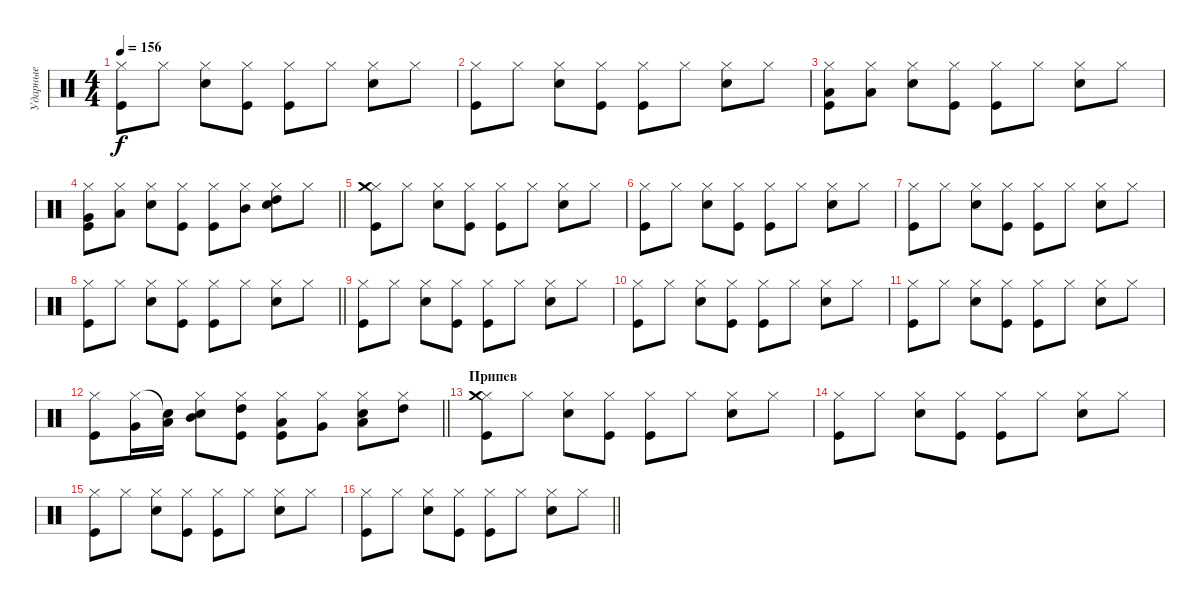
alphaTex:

\track ("Ударные" "Ударные") {instrument percussion}
\staff {score}
\articulation defaults
\ts (4 4)
\tempo 156
\clef neutral
\ks c
("Hi-Hat (closed)" "Kick (hit)").8{dy f} "Hi-Hat (closed)".8 ("Hi-Hat (closed)" "Snare (hit) 2").8 ("Hi-Hat (closed)" "Kick (hit)").8 ("Hi-Hat (closed)" "Kick (hit)").8 "Hi-Hat (closed)".8 ("Hi-Hat (closed)" "Snare (hit) 2").8 "Hi-Hat (closed)".8 |
("Hi-Hat (closed)" "Kick (hit)").8 "Hi-Hat (closed)".8 ("Hi-Hat (closed)" "Snare (hit) 2").8 ("Hi-Hat (closed)" "Kick (hit)").8 ("Hi-Hat (closed)" "Kick (hit)").8 "Hi-Hat (closed)".8 ("Hi-Hat (closed)" "Snare (hit) 2").8 "Hi-Hat (closed)".8 |
("Hi-Hat (closed)" "Kick (hit)" "Low Tom (hit)").8 ("Hi-Hat (closed)" "Low Tom (hit)").8 ("Hi-Hat (closed)" "Snare (hit) 2").8 ("Hi-Hat (closed)" "Kick (hit)").8 ("Hi-Hat (closed)" "Kick (hit)").8 "Hi-Hat (closed)".8 ("Hi-Hat (closed)" "Snare (hit) 2").8 "Hi-Hat (closed)".8 |
\barLineRight lightlight
("Hi-Hat (closed)" "Kick (hit)" "Very Low Tom (hit)").8 ("Hi-Hat (closed)" "Low Tom (hit)").8 ("Hi-Hat (closed)" "Snare (hit) 2").8 ("Hi-Hat (closed)" "Kick (hit)").8 ("Hi-Hat (closed)" "Kick (hit)").8 ("Hi-Hat (closed)" "Mid Tom (hit)").8 ("Hi-Hat (closed)" "Snare (hit) 2" "High Tom (hit)").8 "Hi-Hat (closed)".8 |
("Hi-Hat (closed)" "Kick (hit)" "Crash medium (hit)").8 "Hi-Hat (closed)".8 ("Hi-Hat (closed)" "Snare (hit) 2").8 ("Hi-Hat (closed)" "Kick (hit)").8 ("Hi-Hat (closed)" "Kick (hit)").8 "Hi-Hat (closed)".8 ("Hi-Hat (closed)" "Snare (hit) 2").8 "Hi-Hat (closed)".8 |
("Hi-Hat (closed)" "Kick (hit)").8 "Hi-Hat (closed)".8 ("Hi-Hat (closed)" "Snare (hit) 2").8 ("Hi-Hat (closed)" "Kick (hit)").8 ("Hi-Hat (closed)" "Kick (hit)").8 "Hi-Hat (closed)".8 ("Hi-Hat (closed)" "Snare (hit) 2").8 "Hi-Hat (closed)".8 |
("Hi-Hat (closed)" "Kick (hit)").8 "Hi-Hat (closed)".8 ("Hi-Hat (closed)" "Snare (hit) 2").8 ("Hi-Hat (closed)" "Kick (hit)").8 ("Hi-Hat (closed)" "Kick (hit)").8 "Hi-Hat (closed)".8 ("Hi-Hat (closed)" "Snare (hit) 2").8 "Hi-Hat (closed)".8 |
\barLineRight lightlight
("Hi-Hat (closed)" "Kick (hit)").8 "Hi-Hat (closed)".8 ("Hi-Hat (closed)" "Snare (hit) 2").8 ("Hi-Hat (closed)" "Kick (hit)").8 ("Hi-Hat (closed)" "Kick (hit)").8 "Hi-Hat (closed)".8 ("Hi-Hat (closed)" "Snare (hit) 2").8 "Hi-Hat (closed)".8 |
("Hi-Hat (closed)" "Kick (hit)").8 "Hi-Hat (closed)".8 ("Hi-Hat (closed)" "Snare (hit) 2").8 ("Hi-Hat (closed)" "Kick (hit)").8 ("Hi-Hat (closed)" "Kick (hit)").8 "Hi-Hat (closed)".8 ("Hi-Hat (closed)" "Snare (hit) 2").8 "Hi-Hat (closed)".8 |
("Hi-Hat (closed)" "Kick (hit)").8 "Hi-Hat (closed)".8 ("Hi-Hat (closed)" "Snare (hit) 2").8 ("Hi-Hat (closed)" "Kick (hit)").8 ("Hi-Hat (closed)" "Kick (hit)").8 "Hi-Hat (closed)".8 ("Hi-Hat (closed)" "Snare (hit) 2").8 "Hi-Hat (closed)".8 |
("Hi-Hat (closed)" "Kick (hit)").8 "Hi-Hat (closed)".8 ("Hi-Hat (closed)" "Snare (hit) 2").8 ("Hi-Hat (closed)" "Kick (hit)").8 ("Hi-Hat (closed)" "Kick (hit)").8 "Hi-Hat (closed)".8 ("Hi-Hat (closed)" "Snare (hit) 2").8 "Hi-Hat (closed)".8 |
\barLineRight lightlight
("Hi-Hat (closed)" "Kick (hit)").8 ("Hi-Hat (closed)" "Very Low Tom (hit)").16 ("Snare (hit)"{t} "Low Tom (hit)").16 ("Hi-Hat (closed)" "Snare (hit) 2" "Mid Tom (hit)").8 ("Hi-Hat (closed)" "Kick (hit)" "High Tom (hit)").8 ("Hi-Hat (closed)" "Kick (hit)" "Low Tom (hit)").8 ("Hi-Hat (closed)" "Very Low Tom (hit)").8 ("Hi-Hat (closed)" "Snare (hit) 2" "Low Floor Tom (hit)").8 ("Hi-Hat (closed)" "High Tom (hit)").8 |
\section ("" "Припев")
("Hi-Hat (closed)" "Kick (hit)" "Crash medium (hit)").8 "Hi-Hat (closed)".8 ("Hi-Hat (closed)" "Snare (hit) 2").8 ("Hi-Hat (closed)" "Kick (hit)").8 ("Hi-Hat (closed)" "Kick (hit)").8 "Hi-Hat (closed)".8 ("Hi-Hat (closed)" "Snare (hit) 2").8 "Hi-Hat (closed)".8 |
("Hi-Hat (closed)" "Kick (hit)").8 "Hi-Hat (closed)".8 ("Hi-Hat (closed)" "Snare (hit) 2").8 ("Hi-Hat (closed)" "Kick (hit)").8 ("Hi-Hat (closed)" "Kick (hit)").8 "Hi-Hat (closed)".8 ("Hi-Hat (closed)" "Snare (hit) 2").8 "Hi-Hat (closed)".8 |
("Hi-Hat (closed)" "Kick (hit)").8 "Hi-Hat (closed)".8 ("Hi-Hat (closed)" "Snare (hit) 2").8 ("Hi-Hat (closed)" "Kick (hit)").8 ("Hi-Hat (closed)" "Kick (hit)").8 "Hi-Hat (closed)".8 ("Hi-Hat (closed)" "Snare (hit) 2").8 "Hi-Hat (closed)".8 |
\barLineRight lightlight
("Hi-Hat (closed)" "Kick (hit)").8 "Hi-Hat (closed)".8 ("Hi-Hat (closed)" "Snare (hit) 2").8 ("Hi-Hat (closed)" "Kick (hit)").8 ("Hi-Hat (closed)" "Kick (hit)").8 "Hi-Hat (closed)".8 ("Hi-Hat (closed)" "Snare (hit) 2").8 "Hi-Hat (closed)".8
